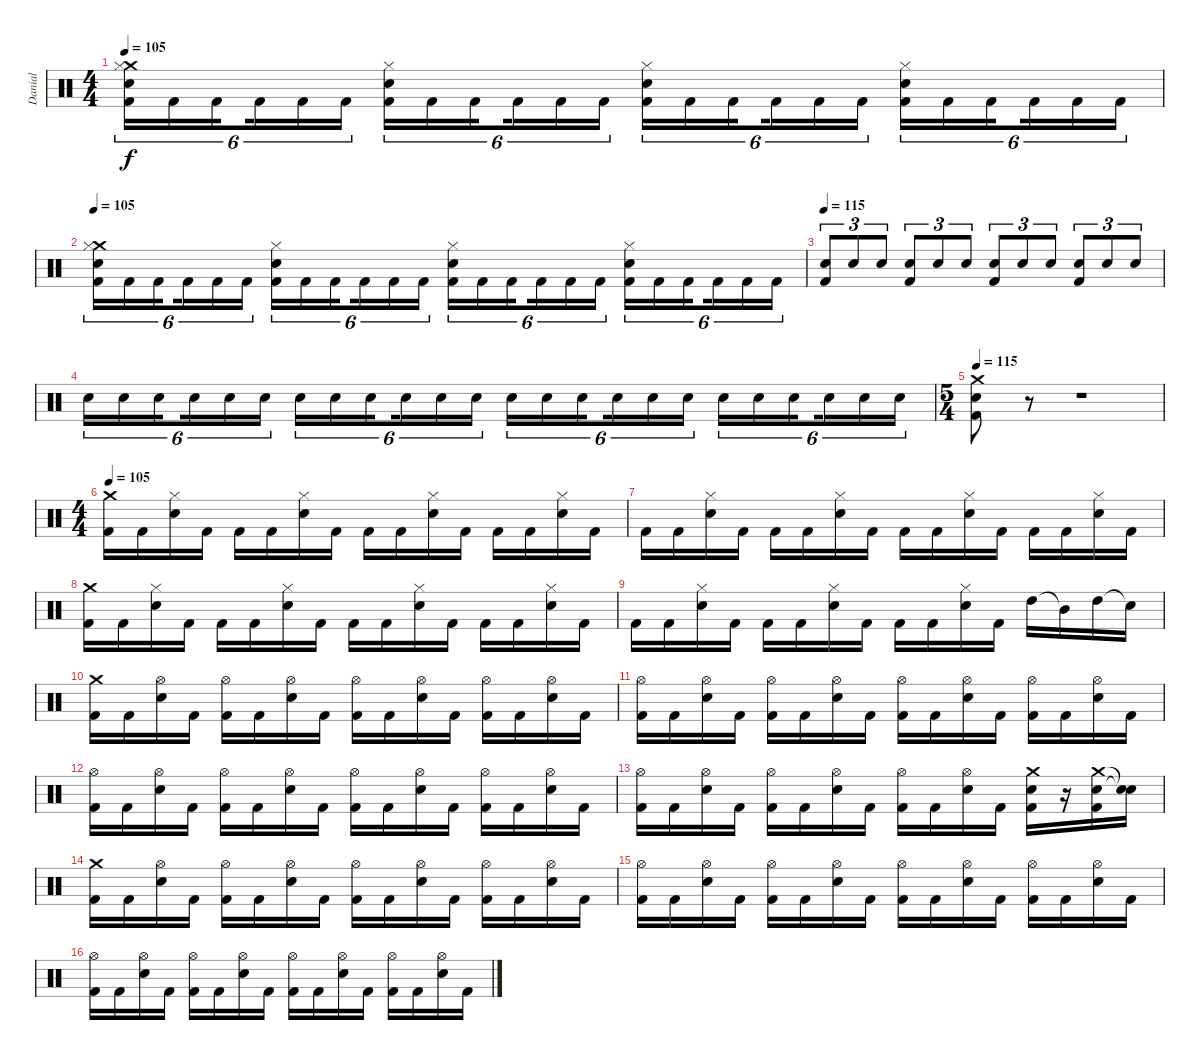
\track ("Danial" "Danial") {instrument percussion}
\staff {score}
\articulation defaults
\ts (4 4)
\tempo 105
\clef neutral
\ks c
("Crash medium (hit)" "Hi-Hat (closed)" "Snare (hit) 2" "Kick (hit) 2").16{tu (6 4) dy f} "Kick (hit) 2".16{tu (6 4)} "Kick (hit) 2".16{tu (6 4) beam splitsecondary} "Kick (hit) 2".16{tu (6 4)} "Kick (hit) 2".16{tu (6 4)} "Kick (hit) 2".16{tu (6 4)} ("Hi-Hat (closed)" "Snare (hit) 2" "Kick (hit) 2").16{tu (6 4)} "Kick (hit) 2".16{tu (6 4)} "Kick (hit) 2".16{tu (6 4) beam splitsecondary} "Kick (hit) 2".16{tu (6 4)} "Kick (hit) 2".16{tu (6 4)} "Kick (hit) 2".16{tu (6 4)} ("Hi-Hat (closed)" "Snare (hit) 2" "Kick (hit) 2").16{tu (6 4)} "Kick (hit) 2".16{tu (6 4)} "Kick (hit) 2".16{tu (6 4) beam splitsecondary} "Kick (hit) 2".16{tu (6 4)} "Kick (hit) 2".16{tu (6 4)} "Kick (hit) 2".16{tu (6 4)} ("Hi-Hat (closed)" "Snare (hit) 2" "Kick (hit) 2").16{tu (6 4)} "Kick (hit) 2".16{tu (6 4)} "Kick (hit) 2".16{tu (6 4) beam splitsecondary} "Kick (hit) 2".16{tu (6 4)} "Kick (hit) 2".16{tu (6 4)} "Kick (hit) 2".16{tu (6 4)} |
\tempo 105
("Crash medium (hit)" "Hi-Hat (closed)" "Snare (hit) 2" "Kick (hit) 2").16{tu (6 4)} "Kick (hit) 2".16{tu (6 4)} "Kick (hit) 2".16{tu (6 4) beam splitsecondary} "Kick (hit) 2".16{tu (6 4)} "Kick (hit) 2".16{tu (6 4)} "Kick (hit) 2".16{tu (6 4)} ("Hi-Hat (closed)" "Snare (hit) 2" "Kick (hit) 2").16{tu (6 4)} "Kick (hit) 2".16{tu (6 4)} "Kick (hit) 2".16{tu (6 4) beam splitsecondary} "Kick (hit) 2".16{tu (6 4)} "Kick (hit) 2".16{tu (6 4)} "Kick (hit) 2".16{tu (6 4)} ("Hi-Hat (closed)" "Snare (hit) 2" "Kick (hit) 2").16{tu (6 4)} "Kick (hit) 2".16{tu (6 4)} "Kick (hit) 2".16{tu (6 4) beam splitsecondary} "Kick (hit) 2".16{tu (6 4)} "Kick (hit) 2".16{tu (6 4)} "Kick (hit) 2".16{tu (6 4)} ("Hi-Hat (closed)" "Snare (hit) 2" "Kick (hit) 2").16{tu (6 4)} "Kick (hit) 2".16{tu (6 4)} "Kick (hit) 2".16{tu (6 4) beam splitsecondary} "Kick (hit) 2".16{tu (6 4)} "Kick (hit) 2".16{tu (6 4)} "Kick (hit) 2".16{tu (6 4)} |
\tempo 115
("Kick (hit) 2" "Snare (hit) 2").8{tu (3 2)} "Snare (hit) 2".8{tu (3 2)} "Snare (hit) 2".8{tu (3 2)} ("Kick (hit) 2" "Snare (hit) 2").8{tu (3 2)} "Snare (hit) 2".8{tu (3 2)} "Snare (hit) 2".8{tu (3 2)} ("Kick (hit) 2" "Snare (hit) 2").8{tu (3 2)} "Snare (hit) 2".8{tu (3 2)} "Snare (hit) 2".8{tu (3 2)} ("Kick (hit) 2" "Snare (hit) 2").8{tu (3 2)} "Snare (hit) 2".8{tu (3 2)} "Snare (hit) 2".8{tu (3 2)} |
"Snare (hit) 2".16{tu (6 4)} "Snare (hit) 2".16{tu (6 4)} "Snare (hit) 2".16{tu (6 4) beam splitsecondary} "Snare (hit) 2".16{tu (6 4)} "Snare (hit) 2".16{tu (6 4)} "Snare (hit) 2".16{tu (6 4)} "Snare (hit) 2".16{tu (6 4)} "Snare (hit) 2".16{tu (6 4)} "Snare (hit) 2".16{tu (6 4) beam splitsecondary} "Snare (hit) 2".16{tu (6 4)} "Snare (hit) 2".16{tu (6 4)} "Snare (hit) 2".16{tu (6 4)} "Snare (hit) 2".16{tu (6 4)} "Snare (hit) 2".16{tu (6 4)} "Snare (hit) 2".16{tu (6 4) beam splitsecondary} "Snare (hit) 2".16{tu (6 4)} "Snare (hit) 2".16{tu (6 4)} "Snare (hit) 2".16{tu (6 4)} "Snare (hit) 2".16{tu (6 4)} "Snare (hit) 2".16{tu (6 4)} "Snare (hit) 2".16{tu (6 4) beam splitsecondary} "Snare (hit) 2".16{tu (6 4)} "Snare (hit) 2".16{tu (6 4)} "Snare (hit) 2".16{tu (6 4)} |
\ts (5 4)
\tempo 115
("Crash medium (hit)" "Snare (hit) 2" "Kick (hit) 2").8 r.8 r.1 |
\ts (4 4)
\tempo 105
("Crash medium (hit)" "Kick (hit) 2").16 "Kick (hit) 2".16 ("Hi-Hat (closed)" "Snare (hit) 2").16 "Kick (hit) 2".16 "Kick (hit) 2".16 "Kick (hit) 2".16 ("Hi-Hat (closed)" "Snare (hit) 2").16 "Kick (hit) 2".16 "Kick (hit) 2".16 "Kick (hit) 2".16 ("Hi-Hat (closed)" "Snare (hit) 2").16 "Kick (hit) 2".16 "Kick (hit) 2".16 "Kick (hit) 2".16 ("Hi-Hat (closed)" "Snare (hit) 2").16 "Kick (hit) 2".16 |
"Kick (hit) 2".16 "Kick (hit) 2".16 ("Hi-Hat (closed)" "Snare (hit) 2").16 "Kick (hit) 2".16 "Kick (hit) 2".16 "Kick (hit) 2".16 ("Hi-Hat (closed)" "Snare (hit) 2").16 "Kick (hit) 2".16 "Kick (hit) 2".16 "Kick (hit) 2".16 ("Hi-Hat (closed)" "Snare (hit) 2").16 "Kick (hit) 2".16 "Kick (hit) 2".16 "Kick (hit) 2".16 ("Hi-Hat (closed)" "Snare (hit) 2").16 "Kick (hit) 2".16 |
("Crash medium (hit)" "Kick (hit) 2").16 "Kick (hit) 2".16 ("Hi-Hat (closed)" "Snare (hit) 2").16 "Kick (hit) 2".16 "Kick (hit) 2".16 "Kick (hit) 2".16 ("Hi-Hat (closed)" "Snare (hit) 2").16 "Kick (hit) 2".16 "Kick (hit) 2".16 "Kick (hit) 2".16 ("Hi-Hat (closed)" "Snare (hit) 2").16 "Kick (hit) 2".16 "Kick (hit) 2".16 "Kick (hit) 2".16 ("Hi-Hat (closed)" "Snare (hit) 2").16 "Kick (hit) 2".16 |
"Kick (hit) 2".16 "Kick (hit) 2".16 ("Hi-Hat (closed)" "Snare (hit) 2").16 "Kick (hit) 2".16 "Kick (hit) 2".16 "Kick (hit) 2".16 ("Hi-Hat (closed)" "Snare (hit) 2").16 "Kick (hit) 2".16 "Kick (hit) 2".16 "Kick (hit) 2".16 ("Hi-Hat (closed)" "Snare (hit) 2").16 "Kick (hit) 2".16 "High Tom (hit)".16 "Mid Tom (hit)"{t}.16 "High Tom (hit)".16 "Snare (hit)"{t}.16 |
("Crash medium (hit)" "Kick (hit) 2").16 "Kick (hit) 2".16 ("Hi-Hat (open)" "Snare (hit) 2").16 "Kick (hit) 2".16 ("Hi-Hat (open)" "Kick (hit) 2").16 "Kick (hit) 2".16 ("Hi-Hat (open)" "Snare (hit) 2").16 "Kick (hit) 2".16 ("Hi-Hat (open)" "Kick (hit) 2").16 "Kick (hit) 2".16 ("Hi-Hat (open)" "Snare (hit) 2").16 "Kick (hit) 2".16 ("Hi-Hat (open)" "Kick (hit) 2").16 "Kick (hit) 2".16 ("Hi-Hat (open)" "Snare (hit) 2").16 "Kick (hit) 2".16 |
("Hi-Hat (open)" "Kick (hit) 2").16 "Kick (hit) 2".16 ("Hi-Hat (open)" "Snare (hit) 2").16 "Kick (hit) 2".16 ("Hi-Hat (open)" "Kick (hit) 2").16 "Kick (hit) 2".16 ("Hi-Hat (open)" "Snare (hit) 2").16 "Kick (hit) 2".16 ("Hi-Hat (open)" "Kick (hit) 2").16 "Kick (hit) 2".16 ("Hi-Hat (open)" "Snare (hit) 2").16 "Kick (hit) 2".16 ("Hi-Hat (open)" "Kick (hit) 2").16 "Kick (hit) 2".16 ("Hi-Hat (open)" "Snare (hit) 2").16 "Kick (hit) 2".16 |
("Hi-Hat (open)" "Kick (hit) 2").16 "Kick (hit) 2".16 ("Hi-Hat (open)" "Snare (hit) 2").16 "Kick (hit) 2".16 ("Hi-Hat (open)" "Kick (hit) 2").16 "Kick (hit) 2".16 ("Hi-Hat (open)" "Snare (hit) 2").16 "Kick (hit) 2".16 ("Hi-Hat (open)" "Kick (hit) 2").16 "Kick (hit) 2".16 ("Hi-Hat (open)" "Snare (hit) 2").16 "Kick (hit) 2".16 ("Hi-Hat (open)" "Kick (hit) 2").16 "Kick (hit) 2".16 ("Hi-Hat (open)" "Snare (hit) 2").16 "Kick (hit) 2".16 |
("Hi-Hat (open)" "Kick (hit) 2").16 "Kick (hit) 2".16 ("Hi-Hat (open)" "Snare (hit) 2").16 "Kick (hit) 2".16 ("Hi-Hat (open)" "Kick (hit) 2").16 "Kick (hit) 2".16 ("Hi-Hat (open)" "Snare (hit) 2").16 "Kick (hit) 2".16 ("Hi-Hat (open)" "Kick (hit) 2").16 "Kick (hit) 2".16 ("Hi-Hat (open)" "Snare (hit) 2").16 "Kick (hit) 2".16 ("Crash medium (hit)" "Snare (hit) 2" "Kick (hit) 2").16 r.16 ("Crash medium (hit)" "Snare (hit) 2" "Kick (hit) 2").16 ("Snare (hit)"{t} "Snare (hit)"{t}).16 |
("Crash medium (hit)" "Kick (hit) 2").16 "Kick (hit) 2".16 ("Hi-Hat (open)" "Snare (hit) 2").16 "Kick (hit) 2".16 ("Hi-Hat (open)" "Kick (hit) 2").16 "Kick (hit) 2".16 ("Hi-Hat (open)" "Snare (hit) 2").16 "Kick (hit) 2".16 ("Hi-Hat (open)" "Kick (hit) 2").16 "Kick (hit) 2".16 ("Hi-Hat (open)" "Snare (hit) 2").16 "Kick (hit) 2".16 ("Hi-Hat (open)" "Kick (hit) 2").16 "Kick (hit) 2".16 ("Hi-Hat (open)" "Snare (hit) 2").16 "Kick (hit) 2".16 |
("Hi-Hat (open)" "Kick (hit) 2").16 "Kick (hit) 2".16 ("Hi-Hat (open)" "Snare (hit) 2").16 "Kick (hit) 2".16 ("Hi-Hat (open)" "Kick (hit) 2").16 "Kick (hit) 2".16 ("Hi-Hat (open)" "Snare (hit) 2").16 "Kick (hit) 2".16 ("Hi-Hat (open)" "Kick (hit) 2").16 "Kick (hit) 2".16 ("Hi-Hat (open)" "Snare (hit) 2").16 "Kick (hit) 2".16 ("Hi-Hat (open)" "Kick (hit) 2").16 "Kick (hit) 2".16 ("Hi-Hat (open)" "Snare (hit) 2").16 "Kick (hit) 2".16 |
("Hi-Hat (open)" "Kick (hit) 2").16 "Kick (hit) 2".16 ("Hi-Hat (open)" "Snare (hit) 2").16 "Kick (hit) 2".16 ("Hi-Hat (open)" "Kick (hit) 2").16 "Kick (hit) 2".16 ("Hi-Hat (open)" "Snare (hit) 2").16 "Kick (hit) 2".16 ("Hi-Hat (open)" "Kick (hit) 2").16 "Kick (hit) 2".16 ("Hi-Hat (open)" "Snare (hit) 2").16 "Kick (hit) 2".16 ("Hi-Hat (open)" "Kick (hit) 2").16 "Kick (hit) 2".16 ("Hi-Hat (open)" "Snare (hit) 2").16 "Kick (hit) 2".16
